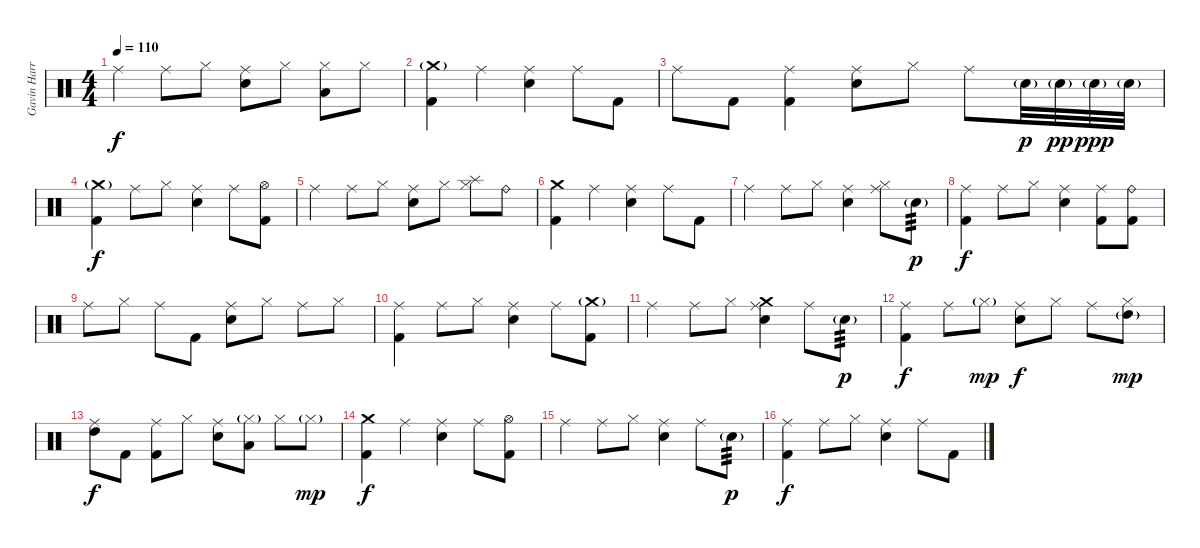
\track ("Gavin Harrison - Drums" "Gavin Harr") {instrument percussion}
\staff {score}
\articulation defaults
\ts (4 4)
\tempo 110
\clef neutral
\ks c "Ride (middle)".4{dy f} "Ride (middle)".8 "Hi-Hat (closed)".8
("Ride (middle)" "Electric Snare (hit)").8 "Hi-Hat (closed)".8 ("Hi-Hat (closed)" "Low Tom (hit)").8 "Hi-Hat (closed)".8 |
("Crash medium (hit)"{g} "Kick (hit) 2").4 "Ride (middle)".4 ("Ride (middle)" "Electric Snare (hit)").4 "Ride (middle)".8 "Kick (hit) 2".8 |
"Ride (middle)".8 "Kick (hit) 2".8 ("Ride (middle)" "Kick (hit) 2").4 ("Ride (middle)" "Electric Snare (hit)").8 "Hi-Hat (closed)".8 "Ride (middle)".8 "Electric Snare (hit)"{g}.32{dy p} "Electric Snare (hit)"{g}.32{dy pp} "Electric Snare (hit)"{g}.32{dy ppp} "Electric Snare (hit)"{g}.32 |
("Crash medium (hit)"{g} "Kick (hit) 2").4{dy f} "Ride (middle)".8 "Hi-Hat (closed)".8 ("Ride (middle)" "Electric Snare (hit)").4 "Ride (middle)".8 ("Hi-Hat (open)" "Kick (hit) 2").8 |
"Ride (middle)".4 "Ride (middle)".8 "Hi-Hat (closed)".8 ("Ride (middle)" "Electric Snare (hit)").8 "Hi-Hat (closed)".8 ("Hi-Hat (closed)" "Splash (hit)").8 "Ride (bell)".8 |
("Crash medium (hit)" "Kick (hit) 2").4 "Ride (middle)".4 ("Ride (middle)" "Electric Snare (hit)").4 "Ride (middle)".8 "Kick (hit) 2".8 |
"Ride (middle)".4 "Ride (middle)".8 "Hi-Hat (closed)".8 ("Ride (middle)" "Electric Snare (hit)").4 ("Ride (middle)" "Hi-Hat (closed)").8 "Electric Snare (hit)"{g}.8{tp 3 dy p} |
("Ride (middle)" "Kick (hit) 2").4{dy f} "Ride (middle)".8 "Hi-Hat (closed)".8 ("Ride (middle)" "Electric Snare (hit)").4 ("Ride (middle)" "Kick (hit) 2").8 ("Ride (bell)" "Kick (hit) 2").8 |
"Ride (middle)".8 "Hi-Hat (closed)".8 "Ride (middle)".8 "Kick (hit) 2".8 ("Ride (middle)" "Electric Snare (hit)").8 "Hi-Hat (closed)".8 "Ride (middle)".8 "Hi-Hat (closed)".8 |
("Ride (middle)" "Kick (hit) 2").4 "Ride (middle)".8 "Hi-Hat (closed)".8 ("Ride (middle)" "Electric Snare (hit)").4 "Ride (middle)".8 ("Crash medium (hit)"{g} "Kick (hit) 2").8 |
"Ride (middle)".4 "Ride (middle)".8 "Hi-Hat (closed)".8 ("Ride (middle)" "Crash medium (hit)" "Electric Snare (hit)").4 "Ride (middle)".8 "Electric Snare (hit)"{g}.8{tp 3 dy p} |
("Ride (middle)" "Kick (hit) 2").4{dy f} "Ride (middle)".8 "Hi-Hat (closed)"{g}.8{dy mp} ("Ride (middle)" "Electric Snare (hit)").8{dy f} "Hi-Hat (closed)".8 "Ride (middle)".8 ("Hi-Hat (closed)" "High Tom (hit)"{g}).8{dy mp} |
("Ride (middle)" "High Tom (hit)").8{dy f} "Kick (hit) 2".8 ("Ride (middle)" "Kick (hit) 2").8 "Hi-Hat (closed)".8 ("Ride (middle)" "Electric Snare (hit)").8 ("Hi-Hat (closed)"{g} "Low Floor Tom (hit)").8 "Hi-Hat (closed)".8 "Hi-Hat (closed)"{g}.8{dy mp} |
("Crash medium (hit)" "Kick (hit) 2").4{dy f} "Ride (middle)".4 ("Ride (middle)" "Electric Snare (hit)").4 "Ride (middle)".8 ("Hi-Hat (open)" "Kick (hit) 2").8 |
"Ride (middle)".4 "Ride (middle)".8 "Hi-Hat (closed)".8 ("Ride (middle)" "Electric Snare (hit)").4 "Ride (middle)".8 "Electric Snare (hit)"{g}.8{tp 3 dy p} |
("Ride (middle)" "Kick (hit) 2").4{dy f} "Ride (middle)".8 "Hi-Hat (closed)".8 ("Ride (middle)" "Electric Snare (hit)").4 "Ride (middle)".8 "Kick (hit) 2".8
